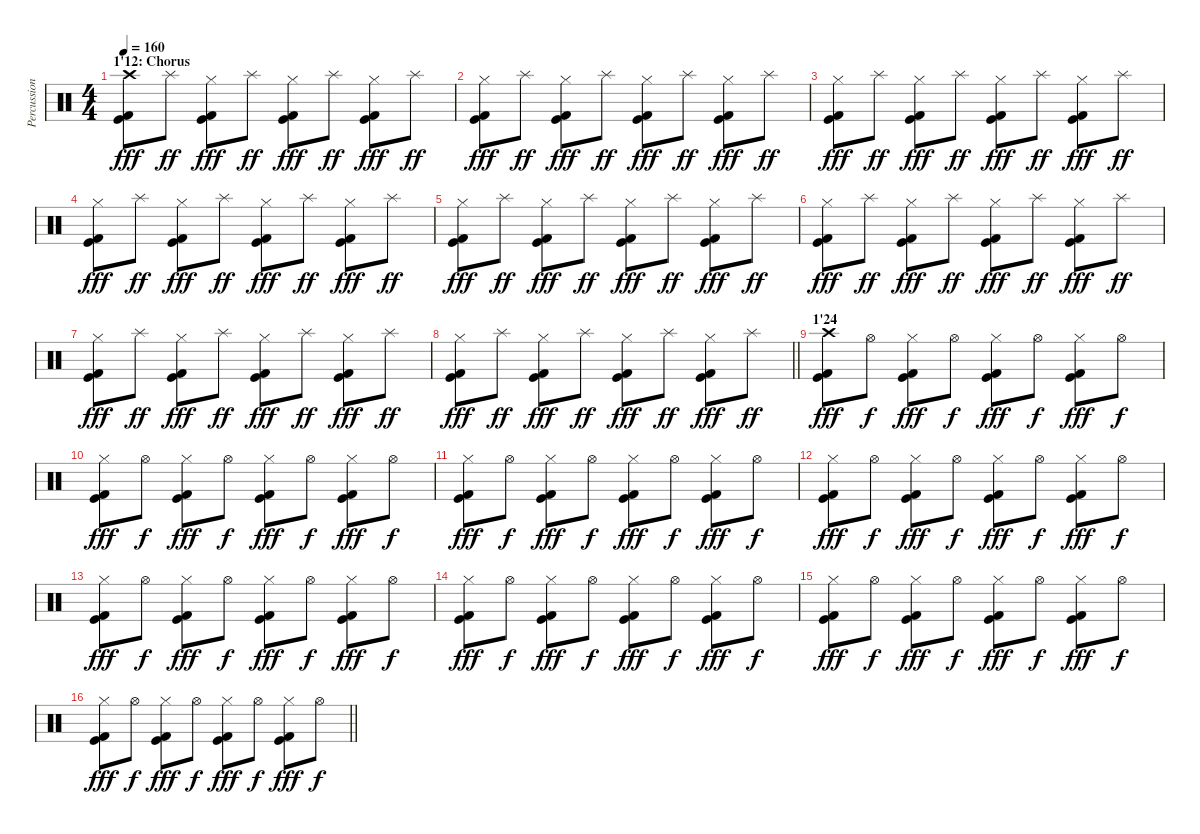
\track ("Percussions" "Percussion") {instrument percussion}
\staff {score}
\articulation defaults
\ts (4 4)
\section ("" "1'12: Chorus")
\tempo 160
\clef neutral
\ks c
("Crash high (hit)" "Kick (hit) 2" "Kick (hit)").8{dy fff} "Splash (hit)".8{dy ff} ("Hi-Hat (closed)" "Kick (hit) 2" "Kick (hit)").8{dy fff} "Splash (hit)".8{dy ff} ("Hi-Hat (closed)" "Kick (hit) 2" "Kick (hit)").8{dy fff} "Splash (hit)".8{dy ff} ("Hi-Hat (closed)" "Kick (hit) 2" "Kick (hit)").8{dy fff} "Splash (hit)".8{dy ff} |
("Hi-Hat (closed)" "Kick (hit) 2" "Kick (hit)").8{dy fff} "Splash (hit)".8{dy ff} ("Hi-Hat (closed)" "Kick (hit) 2" "Kick (hit)").8{dy fff} "Splash (hit)".8{dy ff} ("Hi-Hat (closed)" "Kick (hit) 2" "Kick (hit)").8{dy fff} "Splash (hit)".8{dy ff} ("Hi-Hat (closed)" "Kick (hit) 2" "Kick (hit)").8{dy fff} "Splash (hit)".8{dy ff} |
("Hi-Hat (closed)" "Kick (hit) 2" "Kick (hit)").8{dy fff} "Splash (hit)".8{dy ff} ("Hi-Hat (closed)" "Kick (hit) 2" "Kick (hit)").8{dy fff} "Splash (hit)".8{dy ff} ("Hi-Hat (closed)" "Kick (hit) 2" "Kick (hit)").8{dy fff} "Splash (hit)".8{dy ff} ("Hi-Hat (closed)" "Kick (hit) 2" "Kick (hit)").8{dy fff} "Splash (hit)".8{dy ff} |
("Hi-Hat (closed)" "Kick (hit) 2" "Kick (hit)").8{dy fff} "Splash (hit)".8{dy ff} ("Hi-Hat (closed)" "Kick (hit) 2" "Kick (hit)").8{dy fff} "Splash (hit)".8{dy ff} ("Hi-Hat (closed)" "Kick (hit) 2" "Kick (hit)").8{dy fff} "Splash (hit)".8{dy ff} ("Hi-Hat (closed)" "Kick (hit) 2" "Kick (hit)").8{dy fff} "Splash (hit)".8{dy ff} |
("Hi-Hat (closed)" "Kick (hit) 2" "Kick (hit)").8{dy fff} "Splash (hit)".8{dy ff} ("Hi-Hat (closed)" "Kick (hit) 2" "Kick (hit)").8{dy fff} "Splash (hit)".8{dy ff} ("Hi-Hat (closed)" "Kick (hit) 2" "Kick (hit)").8{dy fff} "Splash (hit)".8{dy ff} ("Hi-Hat (closed)" "Kick (hit) 2" "Kick (hit)").8{dy fff} "Splash (hit)".8{dy ff} |
("Hi-Hat (closed)" "Kick (hit) 2" "Kick (hit)").8{dy fff} "Splash (hit)".8{dy ff} ("Hi-Hat (closed)" "Kick (hit) 2" "Kick (hit)").8{dy fff} "Splash (hit)".8{dy ff} ("Hi-Hat (closed)" "Kick (hit) 2" "Kick (hit)").8{dy fff} "Splash (hit)".8{dy ff} ("Hi-Hat (closed)" "Kick (hit) 2" "Kick (hit)").8{dy fff} "Splash (hit)".8{dy ff} |
("Hi-Hat (closed)" "Kick (hit) 2" "Kick (hit)").8{dy fff} "Splash (hit)".8{dy ff} ("Hi-Hat (closed)" "Kick (hit) 2" "Kick (hit)").8{dy fff} "Splash (hit)".8{dy ff} ("Hi-Hat (closed)" "Kick (hit) 2" "Kick (hit)").8{dy fff} "Splash (hit)".8{dy ff} ("Hi-Hat (closed)" "Kick (hit) 2" "Kick (hit)").8{dy fff} "Splash (hit)".8{dy ff} |
\barLineRight lightlight
("Hi-Hat (closed)" "Kick (hit) 2" "Kick (hit)").8{dy fff} "Splash (hit)".8{dy ff} ("Hi-Hat (closed)" "Kick (hit) 2" "Kick (hit)").8{dy fff} "Splash (hit)".8{dy ff} ("Hi-Hat (closed)" "Kick (hit) 2" "Kick (hit)").8{dy fff} "Splash (hit)".8{dy ff} ("Hi-Hat (closed)" "Kick (hit) 2" "Kick (hit)").8{dy fff} "Splash (hit)".8{dy ff} |
\section ("" "1'24")
("Crash high (hit)" "Kick (hit) 2" "Kick (hit)").8{dy fff} "Hi-Hat (open)".8{dy f} ("Hi-Hat (closed)" "Kick (hit) 2" "Kick (hit)").8{dy fff} "Hi-Hat (open)".8{dy f} ("Hi-Hat (closed)" "Kick (hit) 2" "Kick (hit)").8{dy fff} "Hi-Hat (open)".8{dy f} ("Hi-Hat (closed)" "Kick (hit) 2" "Kick (hit)").8{dy fff} "Hi-Hat (open)".8{dy f} |
("Hi-Hat (closed)" "Kick (hit) 2" "Kick (hit)").8{dy fff} "Hi-Hat (open)".8{dy f} ("Hi-Hat (closed)" "Kick (hit) 2" "Kick (hit)").8{dy fff} "Hi-Hat (open)".8{dy f} ("Hi-Hat (closed)" "Kick (hit) 2" "Kick (hit)").8{dy fff} "Hi-Hat (open)".8{dy f} ("Hi-Hat (closed)" "Kick (hit) 2" "Kick (hit)").8{dy fff} "Hi-Hat (open)".8{dy f} |
("Hi-Hat (closed)" "Kick (hit) 2" "Kick (hit)").8{dy fff} "Hi-Hat (open)".8{dy f} ("Hi-Hat (closed)" "Kick (hit) 2" "Kick (hit)").8{dy fff} "Hi-Hat (open)".8{dy f} ("Hi-Hat (closed)" "Kick (hit) 2" "Kick (hit)").8{dy fff} "Hi-Hat (open)".8{dy f} ("Hi-Hat (closed)" "Kick (hit) 2" "Kick (hit)").8{dy fff} "Hi-Hat (open)".8{dy f} |
("Hi-Hat (closed)" "Kick (hit) 2" "Kick (hit)").8{dy fff} "Hi-Hat (open)".8{dy f} ("Hi-Hat (closed)" "Kick (hit) 2" "Kick (hit)").8{dy fff} "Hi-Hat (open)".8{dy f} ("Hi-Hat (closed)" "Kick (hit) 2" "Kick (hit)").8{dy fff} "Hi-Hat (open)".8{dy f} ("Hi-Hat (closed)" "Kick (hit) 2" "Kick (hit)").8{dy fff} "Hi-Hat (open)".8{dy f} |
("Hi-Hat (closed)" "Kick (hit) 2" "Kick (hit)").8{dy fff} "Hi-Hat (open)".8{dy f} ("Hi-Hat (closed)" "Kick (hit) 2" "Kick (hit)").8{dy fff} "Hi-Hat (open)".8{dy f} ("Hi-Hat (closed)" "Kick (hit) 2" "Kick (hit)").8{dy fff} "Hi-Hat (open)".8{dy f} ("Hi-Hat (closed)" "Kick (hit) 2" "Kick (hit)").8{dy fff} "Hi-Hat (open)".8{dy f} |
("Hi-Hat (closed)" "Kick (hit) 2" "Kick (hit)").8{dy fff} "Hi-Hat (open)".8{dy f} ("Hi-Hat (closed)" "Kick (hit) 2" "Kick (hit)").8{dy fff} "Hi-Hat (open)".8{dy f} ("Hi-Hat (closed)" "Kick (hit) 2" "Kick (hit)").8{dy fff} "Hi-Hat (open)".8{dy f} ("Hi-Hat (closed)" "Kick (hit) 2" "Kick (hit)").8{dy fff} "Hi-Hat (open)".8{dy f} |
("Hi-Hat (closed)" "Kick (hit) 2" "Kick (hit)").8{dy fff} "Hi-Hat (open)".8{dy f} ("Hi-Hat (closed)" "Kick (hit) 2" "Kick (hit)").8{dy fff} "Hi-Hat (open)".8{dy f} ("Hi-Hat (closed)" "Kick (hit) 2" "Kick (hit)").8{dy fff} "Hi-Hat (open)".8{dy f} ("Hi-Hat (closed)" "Kick (hit) 2" "Kick (hit)").8{dy fff} "Hi-Hat (open)".8{dy f} |
\barLineRight lightlight
("Hi-Hat (closed)" "Kick (hit) 2" "Kick (hit)").8{dy fff} "Hi-Hat (open)".8{dy f} ("Hi-Hat (closed)" "Kick (hit) 2" "Kick (hit)").8{dy fff} "Hi-Hat (open)".8{dy f} ("Hi-Hat (closed)" "Kick (hit) 2" "Kick (hit)").8{dy fff} "Hi-Hat (open)".8{dy f} ("Hi-Hat (closed)" "Kick (hit) 2" "Kick (hit)").8{dy fff} "Hi-Hat (open)".8{dy f}
